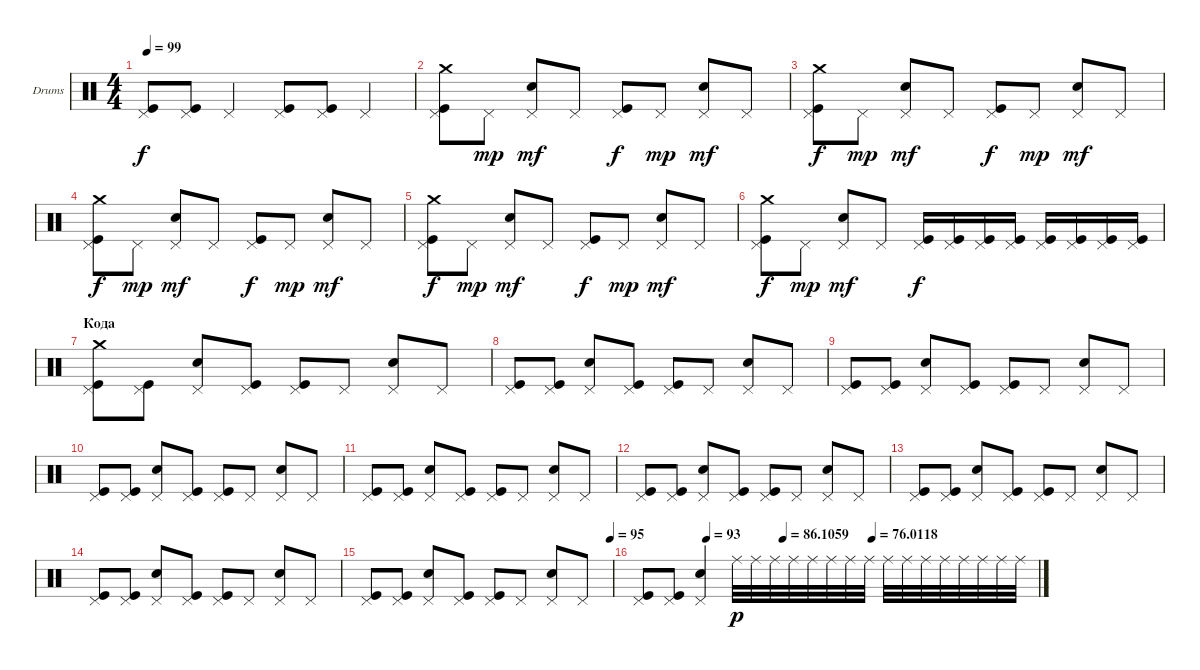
\defaultSystemsLayout 4
\bracketExtendMode groupsimilarinstruments
\firstSystemTrackNameOrientation horizontal
\otherSystemsTrackNameOrientation horizontal
\track ("Е. Кулаков" "Drums") {instrument percussion}
\staff {score}
\articulation defaults
\ts (4 4)
\tempo 99
\clef neutral
\ks c
("Pedal Hi-Hat (hit)" "Kick (hit)").8{dy f} ("Pedal Hi-Hat (hit)" "Kick (hit)").8 "Pedal Hi-Hat (hit)".4 ("Pedal Hi-Hat (hit)" "Kick (hit)").8 ("Pedal Hi-Hat (hit)" "Kick (hit)").8 "Pedal Hi-Hat (hit)".4 |
("Pedal Hi-Hat (hit)" "Kick (hit)" "Crash medium (hit)").8 "Pedal Hi-Hat (hit)".8{dy mp} ("Snare (hit) 2" "Pedal Hi-Hat (hit)").8{dy mf} "Pedal Hi-Hat (hit)".8 ("Pedal Hi-Hat (hit)" "Kick (hit)").8{dy f} "Pedal Hi-Hat (hit)".8{dy mp} ("Snare (hit) 2" "Pedal Hi-Hat (hit)").8{dy mf} "Pedal Hi-Hat (hit)".8 |
("Pedal Hi-Hat (hit)" "Kick (hit)" "Crash medium (hit)").8{dy f} "Pedal Hi-Hat (hit)".8{dy mp} ("Snare (hit) 2" "Pedal Hi-Hat (hit)").8{dy mf} "Pedal Hi-Hat (hit)".8 ("Pedal Hi-Hat (hit)" "Kick (hit)").8{dy f} "Pedal Hi-Hat (hit)".8{dy mp} ("Snare (hit) 2" "Pedal Hi-Hat (hit)").8{dy mf} "Pedal Hi-Hat (hit)".8 |
("Pedal Hi-Hat (hit)" "Kick (hit)" "Crash medium (hit)").8{dy f} "Pedal Hi-Hat (hit)".8{dy mp} ("Snare (hit) 2" "Pedal Hi-Hat (hit)").8{dy mf} "Pedal Hi-Hat (hit)".8 ("Pedal Hi-Hat (hit)" "Kick (hit)").8{dy f} "Pedal Hi-Hat (hit)".8{dy mp} ("Snare (hit) 2" "Pedal Hi-Hat (hit)").8{dy mf} "Pedal Hi-Hat (hit)".8 |
("Pedal Hi-Hat (hit)" "Kick (hit)" "Crash medium (hit)").8{dy f} "Pedal Hi-Hat (hit)".8{dy mp} ("Snare (hit) 2" "Pedal Hi-Hat (hit)").8{dy mf} "Pedal Hi-Hat (hit)".8 ("Pedal Hi-Hat (hit)" "Kick (hit)").8{dy f} "Pedal Hi-Hat (hit)".8{dy mp} ("Snare (hit) 2" "Pedal Hi-Hat (hit)").8{dy mf} "Pedal Hi-Hat (hit)".8 |
("Pedal Hi-Hat (hit)" "Kick (hit)" "Crash medium (hit)").8{dy f} "Pedal Hi-Hat (hit)".8{dy mp} ("Snare (hit) 2" "Pedal Hi-Hat (hit)").8{dy mf} "Pedal Hi-Hat (hit)".8 ("Pedal Hi-Hat (hit)" "Kick (hit)").16{dy f} ("Pedal Hi-Hat (hit)" "Kick (hit)").16 ("Pedal Hi-Hat (hit)" "Kick (hit)").16 ("Pedal Hi-Hat (hit)" "Kick (hit)").16 ("Pedal Hi-Hat (hit)" "Kick (hit)").16 ("Pedal Hi-Hat (hit)" "Kick (hit)").16 ("Pedal Hi-Hat (hit)" "Kick (hit)").16 ("Pedal Hi-Hat (hit)" "Kick (hit)").16 |
\section ("" "Кода")
("Pedal Hi-Hat (hit)" "Kick (hit)" "Crash medium (hit)").8 ("Pedal Hi-Hat (hit)" "Kick (hit)").8 ("Snare (hit) 2" "Pedal Hi-Hat (hit)").8 ("Pedal Hi-Hat (hit)" "Kick (hit)").8 ("Pedal Hi-Hat (hit)" "Kick (hit)").8 "Pedal Hi-Hat (hit)".8 ("Snare (hit) 2" "Pedal Hi-Hat (hit)").8 "Pedal Hi-Hat (hit)".8 |
("Pedal Hi-Hat (hit)" "Kick (hit)").8 ("Pedal Hi-Hat (hit)" "Kick (hit)").8 ("Snare (hit) 2" "Pedal Hi-Hat (hit)").8 ("Pedal Hi-Hat (hit)" "Kick (hit)").8 ("Pedal Hi-Hat (hit)" "Kick (hit)").8 "Pedal Hi-Hat (hit)".8 ("Snare (hit) 2" "Pedal Hi-Hat (hit)").8 "Pedal Hi-Hat (hit)".8 |
("Pedal Hi-Hat (hit)" "Kick (hit)").8 ("Pedal Hi-Hat (hit)" "Kick (hit)").8 ("Snare (hit) 2" "Pedal Hi-Hat (hit)").8 ("Pedal Hi-Hat (hit)" "Kick (hit)").8 ("Pedal Hi-Hat (hit)" "Kick (hit)").8 "Pedal Hi-Hat (hit)".8 ("Snare (hit) 2" "Pedal Hi-Hat (hit)").8 "Pedal Hi-Hat (hit)".8 |
("Pedal Hi-Hat (hit)" "Kick (hit)").8 ("Pedal Hi-Hat (hit)" "Kick (hit)").8 ("Snare (hit) 2" "Pedal Hi-Hat (hit)").8 ("Pedal Hi-Hat (hit)" "Kick (hit)").8 ("Pedal Hi-Hat (hit)" "Kick (hit)").8 "Pedal Hi-Hat (hit)".8 ("Snare (hit) 2" "Pedal Hi-Hat (hit)").8 "Pedal Hi-Hat (hit)".8 |
("Pedal Hi-Hat (hit)" "Kick (hit)").8 ("Pedal Hi-Hat (hit)" "Kick (hit)").8 ("Snare (hit) 2" "Pedal Hi-Hat (hit)").8 ("Pedal Hi-Hat (hit)" "Kick (hit)").8 ("Pedal Hi-Hat (hit)" "Kick (hit)").8 "Pedal Hi-Hat (hit)".8 ("Snare (hit) 2" "Pedal Hi-Hat (hit)").8 "Pedal Hi-Hat (hit)".8 |
("Pedal Hi-Hat (hit)" "Kick (hit)").8 ("Pedal Hi-Hat (hit)" "Kick (hit)").8 ("Snare (hit) 2" "Pedal Hi-Hat (hit)").8 ("Pedal Hi-Hat (hit)" "Kick (hit)").8 ("Pedal Hi-Hat (hit)" "Kick (hit)").8 "Pedal Hi-Hat (hit)".8 ("Snare (hit) 2" "Pedal Hi-Hat (hit)").8 "Pedal Hi-Hat (hit)".8 |
("Pedal Hi-Hat (hit)" "Kick (hit)").8 ("Pedal Hi-Hat (hit)" "Kick (hit)").8 ("Snare (hit) 2" "Pedal Hi-Hat (hit)").8 ("Pedal Hi-Hat (hit)" "Kick (hit)").8 ("Pedal Hi-Hat (hit)" "Kick (hit)").8 "Pedal Hi-Hat (hit)".8 ("Snare (hit) 2" "Pedal Hi-Hat (hit)").8 "Pedal Hi-Hat (hit)".8 |
("Pedal Hi-Hat (hit)" "Kick (hit)").8 ("Pedal Hi-Hat (hit)" "Kick (hit)").8 ("Snare (hit) 2" "Pedal Hi-Hat (hit)").8 ("Pedal Hi-Hat (hit)" "Kick (hit)").8 ("Pedal Hi-Hat (hit)" "Kick (hit)").8 "Pedal Hi-Hat (hit)".8 ("Snare (hit) 2" "Pedal Hi-Hat (hit)").8 "Pedal Hi-Hat (hit)".8 |
\tempo (95 0.99375)
("Pedal Hi-Hat (hit)" "Kick (hit)").8 ("Pedal Hi-Hat (hit)" "Kick (hit)").8 ("Snare (hit) 2" "Pedal Hi-Hat (hit)").8 ("Pedal Hi-Hat (hit)" "Kick (hit)").8 ("Pedal Hi-Hat (hit)" "Kick (hit)").8 "Pedal Hi-Hat (hit)".8 ("Snare (hit) 2" "Pedal Hi-Hat (hit)").8 "Pedal Hi-Hat (hit)".8 |
\tempo (93 0.1625)
\tempo (86.1059 0.35625)
\tempo (76.0118 0.58125)
("Pedal Hi-Hat (hit)" "Kick (hit)").8 ("Pedal Hi-Hat (hit)" "Kick (hit)").8 ("Snare (hit) 2" "Pedal Hi-Hat (hit)").4 "Ride (middle)".32{dy p} "Ride (middle)".32 "Ride (middle)".32 "Ride (middle)".32 "Ride (middle)".32 "Ride (middle)".32 "Ride (middle)".32 "Ride (middle)".32 "Ride (middle)".32 "Ride (middle)".32 "Ride (middle)".32 "Ride (middle)".32 "Ride (middle)".32 "Ride (middle)".32 "Ride (middle)".32 "Ride (middle)".32
